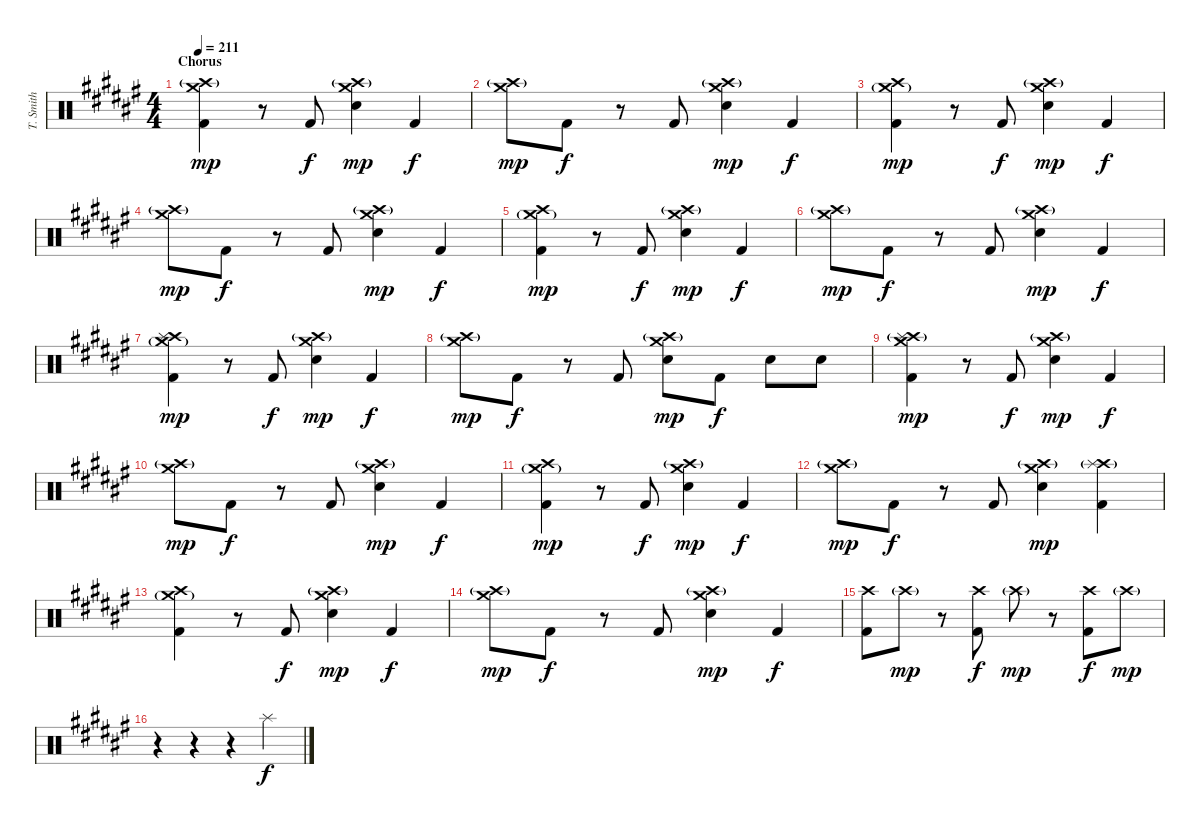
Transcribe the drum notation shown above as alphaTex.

\track ("T. Smith" "T. Smith") {instrument percussion}
\staff {score}
\articulation defaults
\ts (4 4)
\section ("" "Chorus")
\tempo 211
\clef neutral
\ks d#minor
("Crash medium (hit)" "Crash high (hit)"{g} "Kick (hit) 2").4{dy mp} r.8 "Kick (hit) 2".8{dy f} ("Crash medium (hit)" "Crash high (hit)"{g} "Electric Snare (hit)").4{dy mp} "Kick (hit) 2".4{dy f} |
("Crash medium (hit)" "Crash high (hit)"{g}).8{dy mp} "Kick (hit) 2".8{dy f} r.8 "Kick (hit) 2".8 ("Crash medium (hit)" "Crash high (hit)"{g} "Electric Snare (hit)").4{dy mp} "Kick (hit) 2".4{dy f} |
("Crash medium (hit)"{g} "Crash high (hit)" "Kick (hit) 2").4{dy mp} r.8 "Kick (hit) 2".8{dy f} ("Crash medium (hit)" "Crash high (hit)"{g} "Electric Snare (hit)").4{dy mp} "Kick (hit) 2".4{dy f} |
("Crash medium (hit)" "Crash high (hit)"{g}).8{dy mp} "Kick (hit) 2".8{dy f} r.8 "Kick (hit) 2".8 ("Crash medium (hit)" "Crash high (hit)"{g} "Electric Snare (hit)").4{dy mp} "Kick (hit) 2".4{dy f} |
("Crash medium (hit)"{g} "Crash high (hit)" "Kick (hit) 2").4{dy mp} r.8 "Kick (hit) 2".8{dy f} ("Crash medium (hit)" "Crash high (hit)"{g} "Electric Snare (hit)").4{dy mp} "Kick (hit) 2".4{dy f} |
("Crash medium (hit)" "Crash high (hit)"{g}).8{dy mp} "Kick (hit) 2".8{dy f} r.8 "Kick (hit) 2".8 ("Crash medium (hit)" "Crash high (hit)"{g} "Electric Snare (hit)").4{dy mp} "Kick (hit) 2".4{dy f} |
("Crash medium (hit)"{g} "Crash high (hit)" "Splash (hit)" "Kick (hit) 2").4{dy mp} r.8 "Kick (hit) 2".8{dy f} ("Crash medium (hit)" "Crash high (hit)"{g} "Electric Snare (hit)").4{dy mp} "Kick (hit) 2".4{dy f} |
("Crash medium (hit)" "Crash high (hit)"{g}).8{dy mp} "Kick (hit) 2".8{dy f} r.8 "Kick (hit) 2".8 ("Crash medium (hit)" "Crash high (hit)"{g} "Electric Snare (hit)").8{dy mp} "Kick (hit) 2".8{dy f} "Electric Snare (hit)".8 "Electric Snare (hit)".8 |
("Crash medium (hit)" "Crash high (hit)"{g} "Splash (hit)" "Kick (hit) 2").4{dy mp} r.8 "Kick (hit) 2".8{dy f} ("Crash medium (hit)" "Crash high (hit)"{g} "Electric Snare (hit)").4{dy mp} "Kick (hit) 2".4{dy f} |
("Crash medium (hit)" "Crash high (hit)"{g}).8{dy mp} "Kick (hit) 2".8{dy f} r.8 "Kick (hit) 2".8 ("Crash medium (hit)" "Crash high (hit)"{g} "Electric Snare (hit)").4{dy mp} "Kick (hit) 2".4{dy f} |
("Crash medium (hit)"{g} "Crash high (hit)" "Kick (hit) 2").4{dy mp} r.8 "Kick (hit) 2".8{dy f} ("Crash medium (hit)" "Crash high (hit)"{g} "Electric Snare (hit)").4{dy mp} "Kick (hit) 2".4{dy f} |
("Crash medium (hit)" "Crash high (hit)"{g}).8{dy mp} "Kick (hit) 2".8{dy f} r.8 "Kick (hit) 2".8 ("Crash medium (hit)" "Crash high (hit)"{g} "Electric Snare (hit)").4{dy mp} ("Crash high (hit)"{g} "Splash (hit)" "Kick (hit) 2").4 |
("Crash medium (hit)"{g} "Crash high (hit)" "Kick (hit) 2").4 r.8 "Kick (hit) 2".8{dy f} ("Crash medium (hit)" "Crash high (hit)"{g} "Electric Snare (hit)").4{dy mp} "Kick (hit) 2".4{dy f} |
("Crash medium (hit)" "Crash high (hit)"{g}).8{dy mp} "Kick (hit) 2".8{dy f} r.8 "Kick (hit) 2".8 ("Crash medium (hit)" "Crash high (hit)"{g} "Electric Snare (hit)").4{dy mp} "Kick (hit) 2".4{dy f} |
("Crash high (hit)" "Kick (hit) 2").8{balance 13} "Crash high (hit)"{g}.8{dy mp volume 3} r.8 ("Crash high (hit)" "Kick (hit) 2").8{dy f volume 13} "Crash high (hit)"{g}.8{dy mp volume 4} r.8 ("Crash high (hit)" "Kick (hit) 2").8{dy f volume 13} "Crash high (hit)"{g}.8{dy mp volume 4} |
r.4 r.4 r.4 "Splash (hit)".4{dy f volume 11 balance 3}
